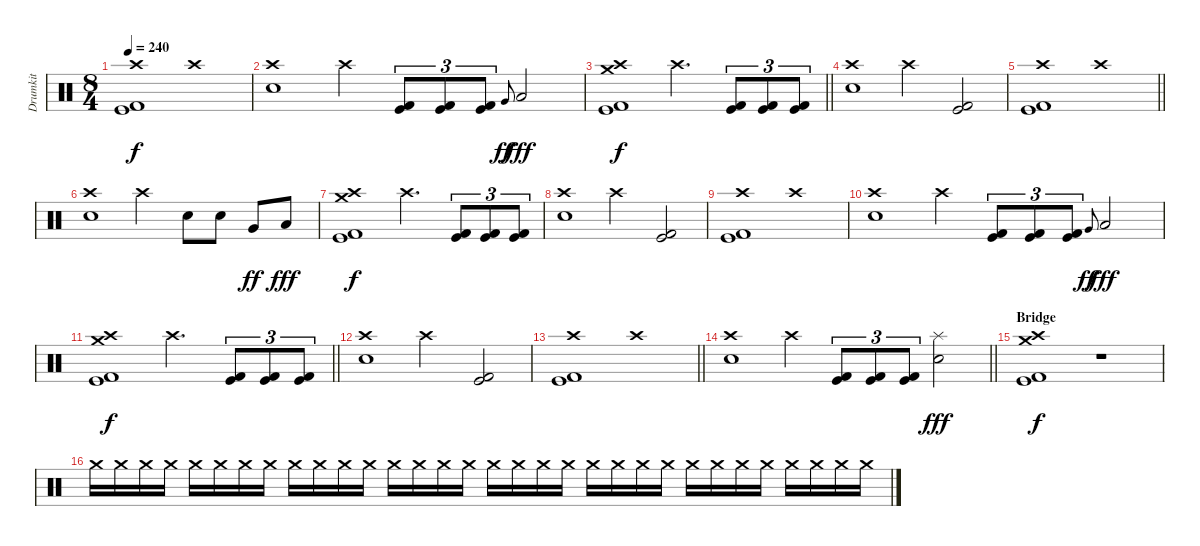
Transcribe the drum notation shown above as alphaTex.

\track ("Drumkit" "Drumkit") {instrument percussion}
\staff {score}
\articulation defaults
\ts (8 4)
\tempo 240
\clef neutral
\ks c
("Crash high (hit)" "Kick (hit)" "Kick (hit) 2").1{dy f} "Crash high (hit)".1 |
("Crash high (hit)" "Electric Snare (hit)").1 "Crash high (hit)".4 ("Kick (hit)" "Kick (hit) 2").8{tu (3 2)} ("Kick (hit)" "Kick (hit) 2").8{tu (3 2)} ("Kick (hit)" "Kick (hit) 2").8{tu (3 2)} "Very Low Tom (hit)".8{gr onbeat dy ff} "Low Floor Tom (hit)".2{dy fff} |
\barLineRight lightlight
("Crash high (hit)" "Crash medium (hit)" "Kick (hit)" "Kick (hit) 2").1{dy f} "Crash high (hit)".2{d} ("Kick (hit)" "Kick (hit) 2").8{tu (3 2)} ("Kick (hit)" "Kick (hit) 2").8{tu (3 2)} ("Kick (hit)" "Kick (hit) 2").8{tu (3 2)} |
("Crash high (hit)" "Electric Snare (hit)").1 "Crash high (hit)".2 ("Kick (hit)" "Kick (hit) 2").2 |
\barLineRight lightlight
("Crash high (hit)" "Kick (hit)" "Kick (hit) 2").1 "Crash high (hit)".1 |
("Crash high (hit)" "Electric Snare (hit)").1 "Crash high (hit)".2 "Electric Snare (hit)".8 "Electric Snare (hit)".8 "Very Low Tom (hit)".8{dy ff} "Low Floor Tom (hit)".8{dy fff} |
("Crash high (hit)" "Crash medium (hit)" "Kick (hit)" "Kick (hit) 2").1{dy f} "Crash high (hit)".2{d} ("Kick (hit)" "Kick (hit) 2").8{tu (3 2)} ("Kick (hit)" "Kick (hit) 2").8{tu (3 2)} ("Kick (hit)" "Kick (hit) 2").8{tu (3 2)} |
("Crash high (hit)" "Electric Snare (hit)").1 "Crash high (hit)".2 ("Kick (hit)" "Kick (hit) 2").2 |
("Crash high (hit)" "Kick (hit)" "Kick (hit) 2").1 "Crash high (hit)".1 |
("Crash high (hit)" "Electric Snare (hit)").1 "Crash high (hit)".4 ("Kick (hit)" "Kick (hit) 2").8{tu (3 2)} ("Kick (hit)" "Kick (hit) 2").8{tu (3 2)} ("Kick (hit)" "Kick (hit) 2").8{tu (3 2)} "Very Low Tom (hit)".8{gr onbeat dy ff} "Low Floor Tom (hit)".2{dy fff} |
\barLineRight lightlight
("Crash high (hit)" "Crash medium (hit)" "Kick (hit)" "Kick (hit) 2").1{dy f} "Crash high (hit)".2{d} ("Kick (hit)" "Kick (hit) 2").8{tu (3 2)} ("Kick (hit)" "Kick (hit) 2").8{tu (3 2)} ("Kick (hit)" "Kick (hit) 2").8{tu (3 2)} |
("Crash high (hit)" "Electric Snare (hit)").1 "Crash high (hit)".2 ("Kick (hit)" "Kick (hit) 2").2 |
\barLineRight lightlight
("Crash high (hit)" "Kick (hit)" "Kick (hit) 2").1 "Crash high (hit)".1 |
\barLineRight lightlight
("Crash high (hit)" "Electric Snare (hit)").1 "Crash high (hit)".4 ("Kick (hit)" "Kick (hit) 2").8{tu (3 2)} ("Kick (hit)" "Kick (hit) 2").8{tu (3 2)} ("Kick (hit)" "Kick (hit) 2").8{tu (3 2)} ("Splash (hit)" "Electric Snare (hit)").2{dy fff} |
\section ("" "Bridge")
("Crash high (hit)" "Crash medium (hit)" "Kick (hit)" "Kick (hit) 2").1{dy f} r.1{volume 0} |
"Crash medium (hit)".16{volume 14} "Crash medium (hit)".16 "Crash medium (hit)".16 "Crash medium (hit)".16 "Crash medium (hit)".16 "Crash medium (hit)".16 "Crash medium (hit)".16 "Crash medium (hit)".16 "Crash medium (hit)".16 "Crash medium (hit)".16 "Crash medium (hit)".16 "Crash medium (hit)".16 "Crash medium (hit)".16 "Crash medium (hit)".16 "Crash medium (hit)".16 "Crash medium (hit)".16 "Crash medium (hit)".16 "Crash medium (hit)".16 "Crash medium (hit)".16 "Crash medium (hit)".16 "Crash medium (hit)".16 "Crash medium (hit)".16 "Crash medium (hit)".16 "Crash medium (hit)".16 "Crash medium (hit)".16 "Crash medium (hit)".16 "Crash medium (hit)".16 "Crash medium (hit)".16 "Crash medium (hit)".16 "Crash medium (hit)".16 "Crash medium (hit)".16 "Crash medium (hit)".16
